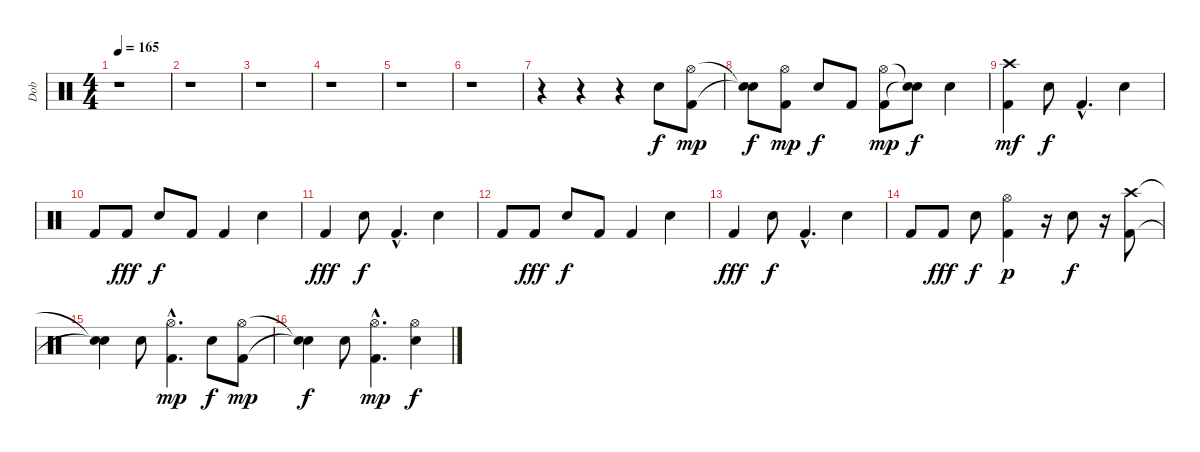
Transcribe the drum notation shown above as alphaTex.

\track ("Dob" "Dob") {instrument percussion}
\staff {score}
\articulation defaults
\ts (4 4)
\tempo 165
\clef neutral
\ks c
r.1{dy f} |
r.1 |
r.1 |
r.1 |
r.1 |
r.1 |
r.4 r.4 r.4 "Electric Snare (hit)".8 ("Kick (hit) 2" "Hi-Hat (open)").8{dy mp} |
("Snare (hit)"{t} "Snare (hit)"{t}).8{dy f} ("Kick (hit) 2" "Hi-Hat (open)").8{dy mp} "Electric Snare (hit)".8{dy f} "Kick (hit) 2".8 ("Kick (hit) 2" "Hi-Hat (open)").8{dy mp} ("Snare (hit)"{t} "Snare (hit)"{t}).8{dy f} "Electric Snare (hit)".4 |
("Kick (hit) 2" "Crash high (hit)").4{dy mf} "Electric Snare (hit)".8{dy f} "Kick (hit) 2"{hac}.4{d} "Electric Snare (hit)".4 |
"Kick (hit) 2".8 "Kick (hit) 2".8{dy fff} "Electric Snare (hit)".8{dy f} "Kick (hit) 2".8 "Kick (hit) 2".4 "Electric Snare (hit)".4 |
"Kick (hit) 2".4{dy fff} "Electric Snare (hit)".8{dy f} "Kick (hit) 2"{hac}.4{d} "Electric Snare (hit)".4 |
"Kick (hit) 2".8 "Kick (hit) 2".8{dy fff} "Electric Snare (hit)".8{dy f} "Kick (hit) 2".8 "Kick (hit) 2".4 "Electric Snare (hit)".4 |
"Kick (hit) 2".4{dy fff} "Electric Snare (hit)".8{dy f} "Kick (hit) 2"{hac}.4{d} "Electric Snare (hit)".4 |
"Kick (hit) 2".8 "Kick (hit) 2".8{dy fff} "Electric Snare (hit)".8{dy f} ("Kick (hit) 2" "Hi-Hat (open)").4{dy p} r.16 "Electric Snare (hit)"{tr (40 16)}.8{dy f} r.16 ("Kick (hit) 2" "Crash high (hit)").8 |
("Snare (hit)"{t} "Snare (hit)"{t}).4 "Electric Snare (hit)".8 ("Kick (hit) 2"{hac} "Hi-Hat (open)"{hac}).4{d dy mp} "Electric Snare (hit)".8{dy f} ("Kick (hit) 2" "Hi-Hat (open)").8{dy mp} |
("Snare (hit)"{t} "Snare (hit)"{t}).4{dy f} "Electric Snare (hit)".8 ("Kick (hit) 2"{hac} "Hi-Hat (open)"{hac}).4{d dy mp} ("Electric Snare (hit)" "Hi-Hat (open)").4{dy f}
